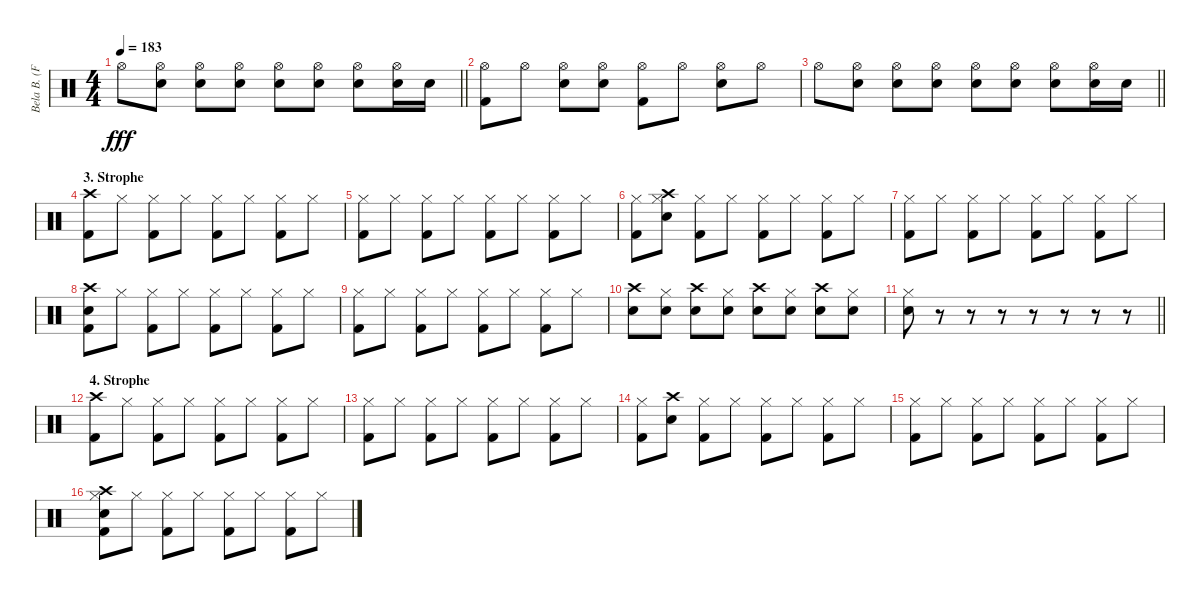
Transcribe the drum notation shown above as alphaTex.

\track ("Bela B. (Felsenheimer)" "Bela B. (F") {instrument percussion}
\staff {score}
\articulation defaults
\ts (4 4)
\tempo 183
\clef neutral
\barLineRight lightlight
\ks c "Hi-Hat (open)".8{dy fff}
("Hi-Hat (open)" "Snare (hit) 2").8 ("Hi-Hat (open)" "Snare (hit) 2").8 ("Hi-Hat (open)" "Snare (hit) 2").8 ("Hi-Hat (open)" "Snare (hit) 2").8 ("Hi-Hat (open)" "Snare (hit) 2").8 ("Hi-Hat (open)" "Snare (hit) 2").8 ("Hi-Hat (open)" "Snare (hit) 2").16 "Snare (hit) 2".16 |
("Hi-Hat (open)" "Kick (hit) 2").8 "Hi-Hat (open)".8 ("Hi-Hat (open)" "Snare (hit) 2").8 ("Hi-Hat (open)" "Snare (hit) 2").8 ("Hi-Hat (open)" "Kick (hit) 2").8 "Hi-Hat (open)".8 ("Hi-Hat (open)" "Snare (hit) 2").8 "Hi-Hat (open)".8 |
\barLineRight lightlight "Hi-Hat (open)".8
("Hi-Hat (open)" "Snare (hit) 2").8 ("Hi-Hat (open)" "Snare (hit) 2").8 ("Hi-Hat (open)" "Snare (hit) 2").8 ("Hi-Hat (open)" "Snare (hit) 2").8 ("Hi-Hat (open)" "Snare (hit) 2").8 ("Hi-Hat (open)" "Snare (hit) 2").8 ("Hi-Hat (open)" "Snare (hit) 2").16 "Snare (hit) 2".16 |
\section ("" "3. Strophe")
("Crash high (hit)" "Kick (hit) 2").8 "Hi-Hat (closed)".8 ("Hi-Hat (closed)" "Kick (hit) 2").8 "Hi-Hat (closed)".8 ("Hi-Hat (closed)" "Kick (hit) 2").8 "Hi-Hat (closed)".8 ("Hi-Hat (closed)" "Kick (hit) 2").8 "Hi-Hat (closed)".8 |
("Kick (hit) 2" "Hi-Hat (closed)").8 "Hi-Hat (closed)".8 ("Kick (hit) 2" "Hi-Hat (closed)").8 "Hi-Hat (closed)".8 ("Kick (hit) 2" "Hi-Hat (closed)").8 "Hi-Hat (closed)".8 ("Kick (hit) 2" "Hi-Hat (closed)").8 "Hi-Hat (closed)".8 |
("Kick (hit) 2" "Hi-Hat (closed)").8 ("Snare (hit) 2" "Crash high (hit)" "Hi-Hat (closed)").8 ("Kick (hit) 2" "Hi-Hat (closed)").8 "Hi-Hat (closed)".8 ("Kick (hit) 2" "Hi-Hat (closed)").8 "Hi-Hat (closed)".8 ("Kick (hit) 2" "Hi-Hat (closed)").8 "Hi-Hat (closed)".8 |
("Kick (hit) 2" "Hi-Hat (closed)").8 "Hi-Hat (closed)".8 ("Kick (hit) 2" "Hi-Hat (closed)").8 "Hi-Hat (closed)".8 ("Kick (hit) 2" "Hi-Hat (closed)").8 "Hi-Hat (closed)".8 ("Kick (hit) 2" "Hi-Hat (closed)").8 "Hi-Hat (closed)".8 |
("Kick (hit) 2" "Snare (hit) 2" "Crash high (hit)").8 "Hi-Hat (closed)".8 ("Kick (hit) 2" "Hi-Hat (closed)").8 "Hi-Hat (closed)".8 ("Kick (hit) 2" "Hi-Hat (closed)").8 "Hi-Hat (closed)".8 ("Kick (hit) 2" "Hi-Hat (closed)").8 "Hi-Hat (closed)".8 |
("Kick (hit) 2" "Hi-Hat (closed)").8 "Hi-Hat (closed)".8 ("Kick (hit) 2" "Hi-Hat (closed)").8 "Hi-Hat (closed)".8 ("Kick (hit) 2" "Hi-Hat (closed)").8 "Hi-Hat (closed)".8 ("Kick (hit) 2" "Hi-Hat (closed)").8 "Hi-Hat (closed)".8 |
("Crash high (hit)" "Snare (hit) 2").8 ("Hi-Hat (closed)" "Snare (hit) 2").8 ("Crash high (hit)" "Snare (hit) 2").8 ("Hi-Hat (closed)" "Snare (hit) 2").8 ("Crash high (hit)" "Snare (hit) 2").8 ("Hi-Hat (closed)" "Snare (hit) 2").8 ("Crash high (hit)" "Snare (hit) 2").8 ("Hi-Hat (closed)" "Snare (hit) 2").8 |
\barLineRight lightlight
("Hi-Hat (closed)" "Snare (hit) 2").8 r.8 r.8 r.8 r.8 r.8 r.8 r.8 |
\section ("" "4. Strophe")
("Crash high (hit)" "Kick (hit) 2").8 "Hi-Hat (closed)".8 ("Hi-Hat (closed)" "Kick (hit) 2").8 "Hi-Hat (closed)".8 ("Hi-Hat (closed)" "Kick (hit) 2").8 "Hi-Hat (closed)".8 ("Hi-Hat (closed)" "Kick (hit) 2").8 "Hi-Hat (closed)".8 |
("Kick (hit) 2" "Hi-Hat (closed)").8 "Hi-Hat (closed)".8 ("Kick (hit) 2" "Hi-Hat (closed)").8 "Hi-Hat (closed)".8 ("Kick (hit) 2" "Hi-Hat (closed)").8 "Hi-Hat (closed)".8 ("Kick (hit) 2" "Hi-Hat (closed)").8 "Hi-Hat (closed)".8 |
("Kick (hit) 2" "Hi-Hat (closed)").8 ("Snare (hit) 2" "Crash high (hit)").8 ("Kick (hit) 2" "Hi-Hat (closed)").8 "Hi-Hat (closed)".8 ("Kick (hit) 2" "Hi-Hat (closed)").8 "Hi-Hat (closed)".8 ("Kick (hit) 2" "Hi-Hat (closed)").8 "Hi-Hat (closed)".8 |
("Kick (hit) 2" "Hi-Hat (closed)").8 "Hi-Hat (closed)".8 ("Kick (hit) 2" "Hi-Hat (closed)").8 "Hi-Hat (closed)".8 ("Kick (hit) 2" "Hi-Hat (closed)").8 "Hi-Hat (closed)".8 ("Kick (hit) 2" "Hi-Hat (closed)").8 "Hi-Hat (closed)".8 |
("Kick (hit) 2" "Snare (hit) 2" "Crash high (hit)" "Hi-Hat (closed)").8 "Hi-Hat (closed)".8 ("Kick (hit) 2" "Hi-Hat (closed)").8 "Hi-Hat (closed)".8 ("Kick (hit) 2" "Hi-Hat (closed)").8 "Hi-Hat (closed)".8 ("Kick (hit) 2" "Hi-Hat (closed)").8 "Hi-Hat (closed)".8
